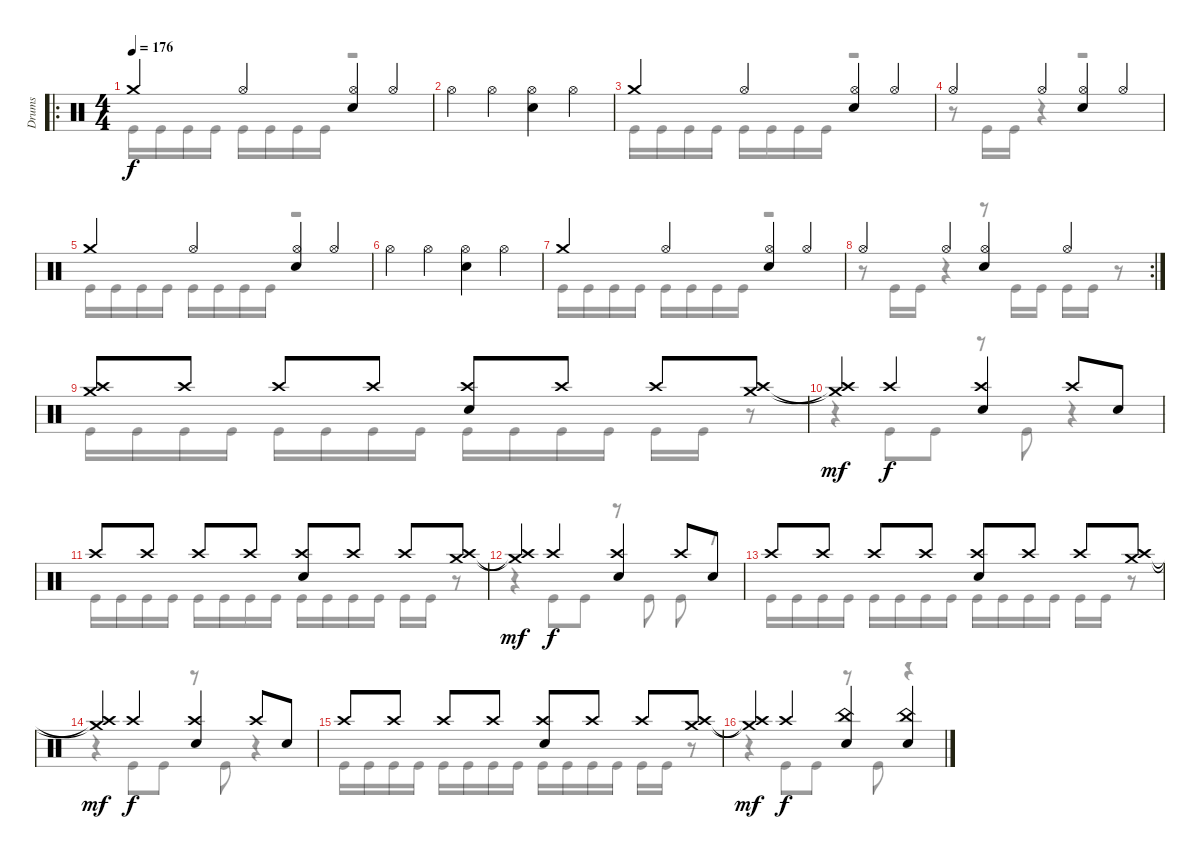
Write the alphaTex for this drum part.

\track ("Drums" "Drums") {instrument percussion}
\staff {score}
\articulation defaults
\voice
\ro
\ts (4 4)
\tempo 176
\clef neutral
\ks c "Crash medium (hit)".4{dy f} "Hi-Hat (open)".4
("Hi-Hat (open)" "Snare (hit) 2").4 "Hi-Hat (open)".4 |
"Hi-Hat (open)".4 "Hi-Hat (open)".4 ("Hi-Hat (open)" "Snare (hit) 2").4 "Hi-Hat (open)".4 |
"Crash medium (hit)".4 "Hi-Hat (open)".4 ("Hi-Hat (open)" "Snare (hit) 2").4 "Hi-Hat (open)".4 |
"Hi-Hat (open)".4 "Hi-Hat (open)".4 ("Hi-Hat (open)" "Snare (hit) 2").4 "Hi-Hat (open)".4 |
"Crash medium (hit)".4 "Hi-Hat (open)".4 ("Hi-Hat (open)" "Snare (hit) 2").4 "Hi-Hat (open)".4 |
"Hi-Hat (open)".4 "Hi-Hat (open)".4 ("Hi-Hat (open)" "Snare (hit) 2").4 "Hi-Hat (open)".4 |
"Crash medium (hit)".4 "Hi-Hat (open)".4 ("Hi-Hat (open)" "Snare (hit) 2").4 "Hi-Hat (open)".4 |
\rc 2 "Hi-Hat (open)".4 "Hi-Hat (open)".4
("Hi-Hat (open)" "Snare (hit) 2").4 "Hi-Hat (open)".4 |
("Crash high (hit)" "Crash medium (hit)").8 "Crash high (hit)".8 "Crash high (hit)".8 "Crash high (hit)".8 ("Snare (hit) 2" "Crash high (hit)").8 "Crash high (hit)".8 "Crash high (hit)".8 ("Crash high (hit)" "Crash medium (hit)").8 |
("Crash medium (hit)"{t} "Crash high (hit)"{t}).4{dy mf} "Crash high (hit)".4{dy f} ("Snare (hit) 2" "Crash high (hit)").4 "Crash high (hit)".8 "Snare (hit) 2".8 |
"Crash high (hit)".8 "Crash high (hit)".8 "Crash high (hit)".8 "Crash high (hit)".8 ("Snare (hit) 2" "Crash high (hit)").8 "Crash high (hit)".8 "Crash high (hit)".8 ("Crash high (hit)" "Crash medium (hit)").8 |
("Crash medium (hit)"{t} "Crash high (hit)"{t}).4{dy mf} "Crash high (hit)".4{dy f} ("Snare (hit) 2" "Crash high (hit)").4 "Crash high (hit)".8 "Snare (hit) 2".8 |
"Crash high (hit)".8 "Crash high (hit)".8 "Crash high (hit)".8 "Crash high (hit)".8 ("Snare (hit) 2" "Crash high (hit)").8 "Crash high (hit)".8 "Crash high (hit)".8 ("Crash high (hit)" "Crash medium (hit)").8 |
("Crash medium (hit)"{t} "Crash high (hit)"{t}).4{dy mf} "Crash high (hit)".4{dy f} ("Snare (hit) 2" "Crash high (hit)").4 "Crash high (hit)".8 "Snare (hit) 2".8 |
"Crash high (hit)".8 "Crash high (hit)".8 "Crash high (hit)".8 "Crash high (hit)".8 ("Snare (hit) 2" "Crash high (hit)").8 "Crash high (hit)".8 "Crash high (hit)".8 ("Crash high (hit)" "Crash medium (hit)").8 |
("Crash medium (hit)"{t} "Crash high (hit)"{t}).4{dy mf} "Crash high (hit)".4{dy f} ("Snare (hit) 2" "China (hit)").4 ("China (hit)" "Snare (hit) 2").4
\voice
\clef neutral
\ottava regular
\simile none
\ks c "Kick (hit)".16{dy f} "Kick (hit)".16 "Kick (hit)".16 "Kick (hit)".16 "Kick (hit)".16 "Kick (hit)".16 "Kick (hit)".16 "Kick (hit)".16
r.2 |
|
"Kick (hit)".16 "Kick (hit)".16 "Kick (hit)".16 "Kick (hit)".16 "Kick (hit)".16 "Kick (hit)".16 "Kick (hit)".16 "Kick (hit)".16 r.2 |
r.8 "Kick (hit)".16 "Kick (hit)".16 r.4 r.2 |
"Kick (hit)".16 "Kick (hit)".16 "Kick (hit)".16 "Kick (hit)".16 "Kick (hit)".16 "Kick (hit)".16 "Kick (hit)".16 "Kick (hit)".16 r.2 |
|
"Kick (hit)".16 "Kick (hit)".16 "Kick (hit)".16 "Kick (hit)".16 "Kick (hit)".16 "Kick (hit)".16 "Kick (hit)".16 "Kick (hit)".16 r.2 |
r.8 "Kick (hit)".16 "Kick (hit)".16 r.4 r.8 "Kick (hit)".16 "Kick (hit)".16 "Kick (hit)".16 "Kick (hit)".16 r.8 |
"Kick (hit)".16 "Kick (hit)".16 "Kick (hit)".16 "Kick (hit)".16 "Kick (hit)".16 "Kick (hit)".16 "Kick (hit)".16 "Kick (hit)".16 "Kick (hit)".16 "Kick (hit)".16 "Kick (hit)".16 "Kick (hit)".16 "Kick (hit)".16 "Kick (hit)".16 r.8 |
r.4 "Kick (hit)".8 "Kick (hit)".8 r.8 "Kick (hit)".8 r.4 |
"Kick (hit)".16 "Kick (hit)".16 "Kick (hit)".16 "Kick (hit)".16 "Kick (hit)".16 "Kick (hit)".16 "Kick (hit)".16 "Kick (hit)".16 "Kick (hit)".16 "Kick (hit)".16 "Kick (hit)".16 "Kick (hit)".16 "Kick (hit)".16 "Kick (hit)".16 r.8 |
r.4 "Kick (hit)".8 "Kick (hit)".8 r.8 "Kick (hit)".8 "Kick (hit)".8 r.8 |
"Kick (hit)".16 "Kick (hit)".16 "Kick (hit)".16 "Kick (hit)".16 "Kick (hit)".16 "Kick (hit)".16 "Kick (hit)".16 "Kick (hit)".16 "Kick (hit)".16 "Kick (hit)".16 "Kick (hit)".16 "Kick (hit)".16 "Kick (hit)".16 "Kick (hit)".16 r.8 |
r.4 "Kick (hit)".8 "Kick (hit)".8 r.8 "Kick (hit)".8 r.4 |
"Kick (hit)".16 "Kick (hit)".16 "Kick (hit)".16 "Kick (hit)".16 "Kick (hit)".16 "Kick (hit)".16 "Kick (hit)".16 "Kick (hit)".16 "Kick (hit)".16 "Kick (hit)".16 "Kick (hit)".16 "Kick (hit)".16 "Kick (hit)".16 "Kick (hit)".16 r.8 |
r.4 "Kick (hit)".8 "Kick (hit)".8 r.8 "Kick (hit)".8 r.4
